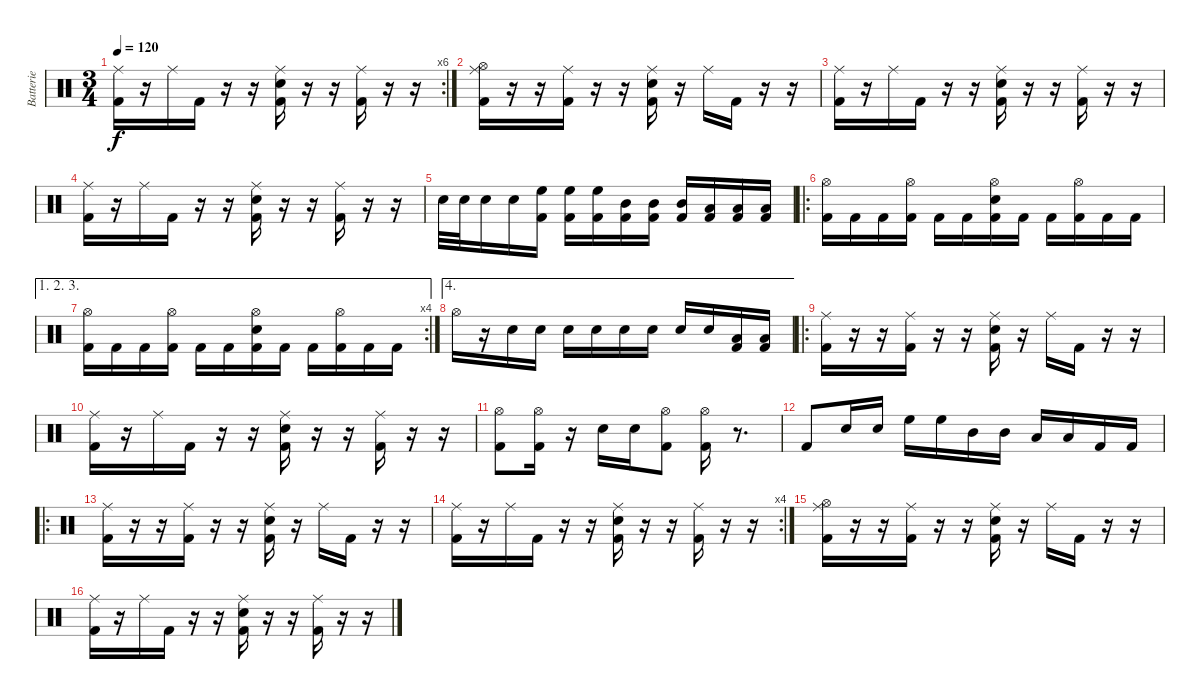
\track ("Batterie" "Batterie") {instrument percussion}
\staff {score}
\articulation defaults
\rc 6
\ts (3 4)
\tempo 120
\clef neutral
\ks c
("Ride (middle)" "Kick (hit) 2").16{dy f} r.16 "Ride (middle)".16 "Kick (hit) 2".16 r.16 r.16 ("Ride (middle)" "Electric Snare (hit)" "Kick (hit) 2").16 r.16 r.16 ("Ride (middle)" "Kick (hit) 2").16 r.16 r.16 |
("Ride (middle)" "Hi-Hat (open)" "Kick (hit) 2").16 r.16 r.16 ("Ride (middle)" "Kick (hit) 2").16 r.16 r.16 ("Ride (middle)" "Electric Snare (hit)" "Kick (hit) 2").16 r.16 "Ride (middle)".16 "Kick (hit) 2".16 r.16 r.16 |
("Ride (middle)" "Kick (hit) 2").16 r.16 "Ride (middle)".16 "Kick (hit) 2".16 r.16 r.16 ("Ride (middle)" "Electric Snare (hit)" "Kick (hit) 2").16 r.16 r.16 ("Ride (middle)" "Kick (hit) 2").16 r.16 r.16 |
("Ride (middle)" "Kick (hit) 2").16 r.16 "Ride (middle)".16 "Kick (hit) 2".16 r.16 r.16 ("Ride (middle)" "Electric Snare (hit)" "Kick (hit) 2").16 r.16 r.16 ("Ride (middle)" "Kick (hit) 2").16 r.16 r.16 |
"Electric Snare (hit)".32 "Electric Snare (hit)".32 "Electric Snare (hit)".16 "Electric Snare (hit)".16 ("High Floor Tom (hit)" "Kick (hit) 2").16 ("High Floor Tom (hit)" "Kick (hit) 2").16 ("High Floor Tom (hit)" "Kick (hit) 2").16 ("Mid Tom (hit)" "Kick (hit) 2").16 ("Mid Tom (hit)" "Kick (hit) 2").16 ("Mid Tom (hit)" "Kick (hit) 2").16 ("Low Tom (hit)" "Kick (hit) 2").16 ("Low Tom (hit)" "Kick (hit) 2").16 ("Low Tom (hit)" "Kick (hit) 2").16 |
\ro
("Hi-Hat (open)" "Kick (hit) 2").16 "Kick (hit) 2".16 "Kick (hit) 2".16 ("Hi-Hat (open)" "Kick (hit) 2").16 "Kick (hit) 2".16 "Kick (hit) 2".16 ("Hi-Hat (open)" "Electric Snare (hit)" "Kick (hit) 2").16 "Kick (hit) 2".16 "Kick (hit) 2".16 ("Hi-Hat (open)" "Kick (hit) 2").16 "Kick (hit) 2".16 "Kick (hit) 2".16 |
\ae (1 2 3)
\rc 4
("Hi-Hat (open)" "Kick (hit) 2").16 "Kick (hit) 2".16 "Kick (hit) 2".16 ("Hi-Hat (open)" "Kick (hit) 2").16 "Kick (hit) 2".16 "Kick (hit) 2".16 ("Hi-Hat (open)" "Electric Snare (hit)" "Kick (hit) 2").16 "Kick (hit) 2".16 "Kick (hit) 2".16 ("Hi-Hat (open)" "Kick (hit) 2").16 "Kick (hit) 2".16 "Kick (hit) 2".16 |
\ae 4 "Hi-Hat (open)".16
r.16 "Electric Snare (hit)".16 "Electric Snare (hit)".16 "Snare (hit) 2".16 "Snare (hit) 2".16 "Electric Snare (hit)".16 "Electric Snare (hit)".16 "Snare (hit) 2".16 "Snare (hit) 2".16 ("Low Tom (hit)" "Kick (hit) 2").16 ("Low Tom (hit)" "Kick (hit) 2").16 |
\ro
("Ride (middle)" "Kick (hit) 2").16 r.16 r.16 ("Ride (middle)" "Kick (hit) 2").16 r.16 r.16 ("Ride (middle)" "Electric Snare (hit)" "Kick (hit) 2").16 r.16 "Ride (middle)".16 "Kick (hit) 2".16 r.16 r.16 |
("Ride (middle)" "Kick (hit) 2").16 r.16 "Ride (middle)".16 "Kick (hit) 2".16 r.16 r.16 ("Ride (middle)" "Electric Snare (hit)" "Kick (hit) 2").16 r.16 r.16 ("Ride (middle)" "Kick (hit) 2").16 r.16 r.16 |
("Hi-Hat (open)" "Kick (hit) 2").8 ("Hi-Hat (open)" "Kick (hit) 2").16 r.16 "Snare (hit) 2".16 "Snare (hit) 2".16 ("Hi-Hat (open)" "Kick (hit) 2").8 ("Hi-Hat (open)" "Kick (hit) 2").16 r.8{d} |
"Kick (hit) 2".8 "Electric Snare (hit)".16 "Electric Snare (hit)".16 "High Floor Tom (hit)".16 "High Floor Tom (hit)".16 "Mid Tom (hit)".16 "Mid Tom (hit)".16 "Low Tom (hit)".16 "Low Tom (hit)".16 "Kick (hit) 2".16 "Kick (hit) 2".16 |
\ro
("Ride (middle)" "Kick (hit) 2").16 r.16 r.16 ("Ride (middle)" "Kick (hit) 2").16 r.16 r.16 ("Ride (middle)" "Electric Snare (hit)" "Kick (hit) 2").16 r.16 "Ride (middle)".16 "Kick (hit) 2".16 r.16 r.16 |
\rc 4
("Ride (middle)" "Kick (hit) 2").16 r.16 "Ride (middle)".16 "Kick (hit) 2".16 r.16 r.16 ("Ride (middle)" "Electric Snare (hit)" "Kick (hit) 2").16 r.16 r.16 ("Ride (middle)" "Kick (hit) 2").16 r.16 r.16 |
("Ride (middle)" "Hi-Hat (open)" "Kick (hit) 2").16 r.16 r.16 ("Ride (middle)" "Kick (hit) 2").16 r.16 r.16 ("Ride (middle)" "Electric Snare (hit)" "Kick (hit) 2").16 r.16 "Ride (middle)".16 "Kick (hit) 2".16 r.16 r.16 |
("Ride (middle)" "Kick (hit) 2").16 r.16 "Ride (middle)".16 "Kick (hit) 2".16 r.16 r.16 ("Ride (middle)" "Electric Snare (hit)" "Kick (hit) 2").16 r.16 r.16 ("Ride (middle)" "Kick (hit) 2").16 r.16 r.16
